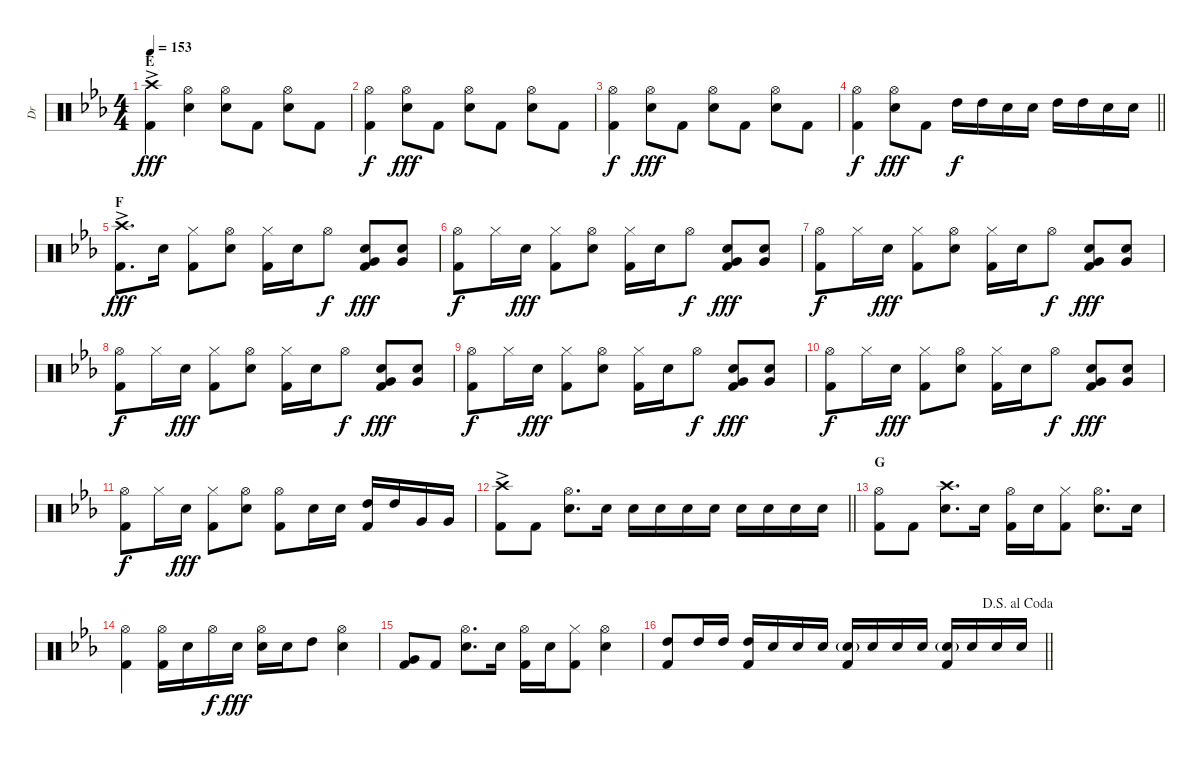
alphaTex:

\track ("Dr" "Dr") {instrument percussion}
\staff {score}
\articulation defaults
\ts (4 4)
\section ("" "E")
\tempo 153
\clef neutral
\ks cminor
("Crash high (hit)"{ac} "Kick (hit) 2"{ac}).4{dy fff} ("Hi-Hat (open)" "Electric Snare (hit)").4 ("Hi-Hat (open)" "Electric Snare (hit)").8 "Kick (hit) 2".8 ("Hi-Hat (open)" "Electric Snare (hit)").8 "Kick (hit) 2".8 |
("Hi-Hat (open)" "Kick (hit) 2").4{dy f} ("Hi-Hat (open)" "Electric Snare (hit)").8{dy fff} "Kick (hit) 2".8 ("Hi-Hat (open)" "Electric Snare (hit)").8 "Kick (hit) 2".8 ("Hi-Hat (open)" "Electric Snare (hit)").8 "Kick (hit) 2".8 |
("Hi-Hat (open)" "Kick (hit) 2").4{dy f} ("Hi-Hat (open)" "Electric Snare (hit)").8{dy fff} "Kick (hit) 2".8 ("Hi-Hat (open)" "Electric Snare (hit)").8 "Kick (hit) 2".8 ("Hi-Hat (open)" "Electric Snare (hit)").8 "Kick (hit) 2".8 |
\barLineRight lightlight
("Hi-Hat (open)" "Kick (hit) 2").4{dy f} ("Hi-Hat (open)" "Electric Snare (hit)").8{dy fff} "Kick (hit) 2".8 "High Tom (hit)".16{dy f} "High Tom (hit)".16 "Electric Snare (hit)".16 "Electric Snare (hit)".16 "High Tom (hit)".16 "High Tom (hit)".16 "Electric Snare (hit)".16 "Electric Snare (hit)".16 |
\section ("" "F")
("Crash high (hit)"{ac} "Kick (hit) 2"{ac}).8{d dy fff} "Electric Snare (hit)".16 ("Hi-Hat (closed)" "Kick (hit) 2").8 ("Hi-Hat (open)" "Electric Snare (hit)").8 ("Hi-Hat (closed)" "Kick (hit) 2").16 "Electric Snare (hit)".16 "Hi-Hat (open)".8{dy f} ("Electric Snare (hit)" "Very Low Tom (hit)" "Kick (hit) 2").8{dy fff} ("Electric Snare (hit)" "Very Low Tom (hit)").8 |
("Hi-Hat (open)" "Kick (hit) 2").8{dy f} "Hi-Hat (closed)".16 "Electric Snare (hit)".16{dy fff} ("Hi-Hat (closed)" "Kick (hit) 2").8 ("Hi-Hat (open)" "Electric Snare (hit)").8 ("Hi-Hat (closed)" "Kick (hit) 2").16 "Electric Snare (hit)".16 "Hi-Hat (open)".8{dy f} ("Electric Snare (hit)" "Very Low Tom (hit)" "Kick (hit) 2").8{dy fff} ("Electric Snare (hit)" "Very Low Tom (hit)").8 |
("Hi-Hat (open)" "Kick (hit) 2").8{dy f} "Hi-Hat (closed)".16 "Electric Snare (hit)".16{dy fff} ("Hi-Hat (closed)" "Kick (hit) 2").8 ("Hi-Hat (open)" "Electric Snare (hit)").8 ("Hi-Hat (closed)" "Kick (hit) 2").16 "Electric Snare (hit)".16 "Hi-Hat (open)".8{dy f} ("Electric Snare (hit)" "Very Low Tom (hit)" "Kick (hit) 2").8{dy fff} ("Electric Snare (hit)" "Very Low Tom (hit)").8 |
("Hi-Hat (open)" "Kick (hit) 2").8{dy f} "Hi-Hat (closed)".16 "Electric Snare (hit)".16{dy fff} ("Hi-Hat (closed)" "Kick (hit) 2").8 ("Hi-Hat (open)" "Electric Snare (hit)").8 ("Hi-Hat (closed)" "Kick (hit) 2").16 "Electric Snare (hit)".16 "Hi-Hat (open)".8{dy f} ("Electric Snare (hit)" "Very Low Tom (hit)" "Kick (hit) 2").8{dy fff} ("Electric Snare (hit)" "Very Low Tom (hit)").8 |
("Hi-Hat (open)" "Kick (hit) 2").8{dy f} "Hi-Hat (closed)".16 "Electric Snare (hit)".16{dy fff} ("Hi-Hat (closed)" "Kick (hit) 2").8 ("Hi-Hat (open)" "Electric Snare (hit)").8 ("Hi-Hat (closed)" "Kick (hit) 2").16 "Electric Snare (hit)".16 "Hi-Hat (open)".8{dy f} ("Electric Snare (hit)" "Very Low Tom (hit)" "Kick (hit) 2").8{dy fff} ("Electric Snare (hit)" "Very Low Tom (hit)").8 |
("Hi-Hat (open)" "Kick (hit) 2").8{dy f} "Hi-Hat (closed)".16 "Electric Snare (hit)".16{dy fff} ("Hi-Hat (closed)" "Kick (hit) 2").8 ("Hi-Hat (open)" "Electric Snare (hit)").8 ("Hi-Hat (closed)" "Kick (hit) 2").16 "Electric Snare (hit)".16 "Hi-Hat (open)".8{dy f} ("Electric Snare (hit)" "Very Low Tom (hit)" "Kick (hit) 2").8{dy fff} ("Electric Snare (hit)" "Very Low Tom (hit)").8 |
("Hi-Hat (open)" "Kick (hit) 2").8{dy f} "Hi-Hat (closed)".16 "Electric Snare (hit)".16{dy fff} ("Hi-Hat (closed)" "Kick (hit) 2").8 ("Hi-Hat (open)" "Electric Snare (hit)").8 ("Hi-Hat (open)" "Kick (hit) 2").8 "Electric Snare (hit)".16 "Electric Snare (hit)".16 ("High Tom (hit)" "Kick (hit) 2").16 "High Tom (hit)".16 "Very Low Tom (hit)".16 "Very Low Tom (hit)".16 |
\barLineRight lightlight
("Crash high (hit)"{ac} "Kick (hit) 2"{ac}).8 "Kick (hit) 2".8 ("Hi-Hat (open)" "Electric Snare (hit)").8{d} "Electric Snare (hit)".16 "Electric Snare (hit)".16 "Electric Snare (hit)".16 "Electric Snare (hit)".16 "Electric Snare (hit)".16 "Electric Snare (hit)".16 "Electric Snare (hit)".16 "Electric Snare (hit)".16 "Electric Snare (hit)".16 |
\section ("" "G")
("Hi-Hat (open)" "Kick (hit) 2").8 "Kick (hit) 2".8 ("Crash high (hit)" "Electric Snare (hit)").8{d} "Electric Snare (hit)".16 ("Hi-Hat (open)" "Kick (hit) 2").16 "Electric Snare (hit)".16 ("Hi-Hat (closed)" "Kick (hit) 2").8 ("Hi-Hat (open)" "Electric Snare (hit)").8{d} "Electric Snare (hit)".16 |
("Hi-Hat (open)" "Kick (hit) 2").4 ("Hi-Hat (open)" "Kick (hit) 2").16 "Electric Snare (hit)".16 "Hi-Hat (open)".16{dy f} "Electric Snare (hit)".16{dy fff} ("Hi-Hat (open)" "Electric Snare (hit)").16 "Electric Snare (hit)".16 "High Tom (hit)".8 ("Hi-Hat (open)" "Electric Snare (hit)").4 |
("Very Low Tom (hit)" "Kick (hit) 2").8 "Kick (hit) 2".8 ("Hi-Hat (open)" "Electric Snare (hit)").8{d} "Electric Snare (hit)".16 ("Hi-Hat (open)" "Kick (hit) 2").16 "Electric Snare (hit)".16 ("Hi-Hat (closed)" "Kick (hit) 2").8 ("Hi-Hat (open)" "Electric Snare (hit)").4 |
\jump dalsegnoalcoda
\barLineRight lightlight
("High Tom (hit)" "Kick (hit) 2").8 "High Tom (hit)".16 "High Tom (hit)".16 ("High Tom (hit)" "Kick (hit) 2").16 "Electric Snare (hit)".16 "Electric Snare (hit)".16 "Electric Snare (hit)".16 ("Electric Snare (hit)"{g} "Kick (hit) 2").16 "Electric Snare (hit)".16 "Electric Snare (hit)".16 "Electric Snare (hit)".16 ("Electric Snare (hit)"{g} "Kick (hit) 2").16 "Electric Snare (hit)".16 "Electric Snare (hit)".16 "Electric Snare (hit)".16
